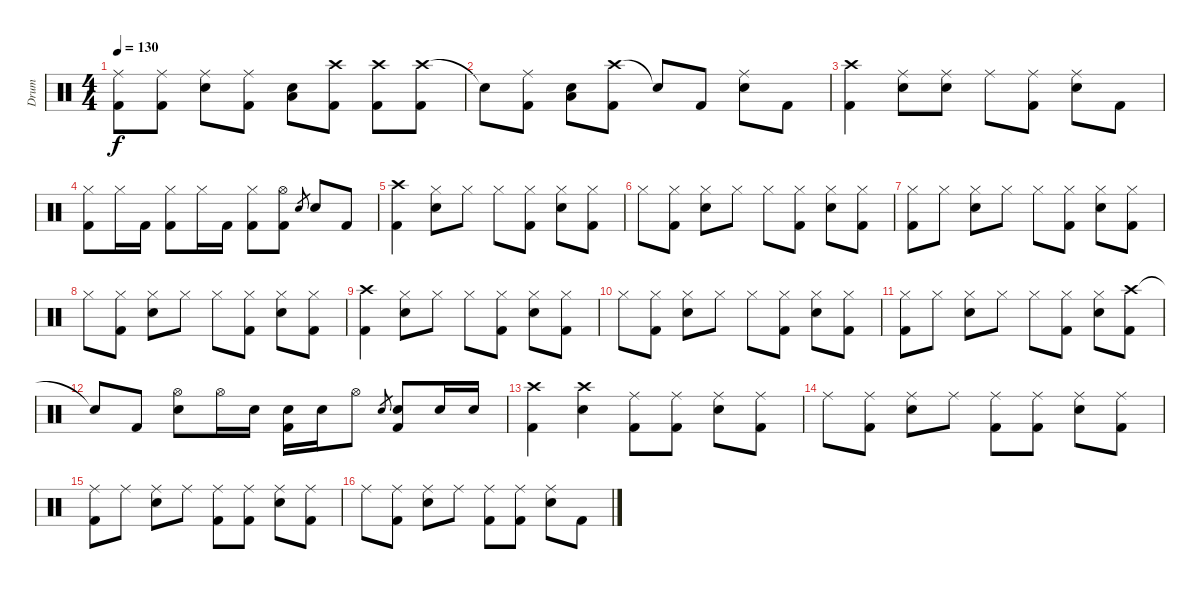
\track ("Drum" "Drum") {instrument percussion}
\staff {score}
\articulation defaults
\ts (4 4)
\tempo 130
\clef neutral
\ks c
("Ride (middle)" "Kick (hit) 2").8{dy f} ("Ride (middle)" "Kick (hit) 2").8 ("Ride (middle)" "Electric Snare (hit)").8 ("Ride (middle)" "Kick (hit) 2").8 ("Electric Snare (hit)" "Low Floor Tom (hit)").8 ("Crash high (hit)" "Kick (hit) 2").8 ("Crash high (hit)" "Kick (hit) 2").8 ("Crash high (hit)" "Kick (hit) 2").8 |
"Snare (hit)"{t}.8 ("Ride (middle)" "Kick (hit) 2").8 ("Electric Snare (hit)" "Low Floor Tom (hit)").8 ("Crash high (hit)" "Kick (hit) 2").8 "Snare (hit)"{t}.8 "Kick (hit) 2".8 ("Ride (middle)" "Electric Snare (hit)").8 "Kick (hit) 2".8 |
("Crash high (hit)" "Kick (hit) 2").4 ("Ride (middle)" "Electric Snare (hit)").8 ("Ride (middle)" "Electric Snare (hit)").8 "Ride (middle)".8 ("Ride (middle)" "Kick (hit) 2").8 ("Ride (middle)" "Electric Snare (hit)").8 "Kick (hit) 2".8 |
("Hi-Hat (closed)" "Kick (hit) 2").8 "Hi-Hat (closed)".16 "Kick (hit) 2".16 ("Hi-Hat (closed)" "Kick (hit) 2").8 "Hi-Hat (closed)".16 "Kick (hit) 2".16 ("Hi-Hat (closed)" "Kick (hit) 2").8 ("Hi-Hat (open)" "Kick (hit) 2").8 "Electric Snare (hit)".8{gr} "Electric Snare (hit)".8 "Kick (hit) 2".8 |
("Crash high (hit)" "Kick (hit) 2").4 ("Hi-Hat (closed)" "Electric Snare (hit)").8 "Hi-Hat (closed)".8 "Hi-Hat (closed)".8 ("Hi-Hat (closed)" "Kick (hit) 2").8 ("Hi-Hat (closed)" "Electric Snare (hit)").8 ("Hi-Hat (closed)" "Kick (hit) 2").8 |
"Hi-Hat (closed)".8 ("Hi-Hat (closed)" "Kick (hit) 2").8 ("Hi-Hat (closed)" "Electric Snare (hit)").8 "Hi-Hat (closed)".8 "Hi-Hat (closed)".8 ("Hi-Hat (closed)" "Kick (hit) 2").8 ("Hi-Hat (closed)" "Electric Snare (hit)").8 ("Hi-Hat (closed)" "Kick (hit) 2").8 |
("Hi-Hat (closed)" "Kick (hit) 2").8 "Hi-Hat (closed)".8 ("Hi-Hat (closed)" "Electric Snare (hit)").8 "Hi-Hat (closed)".8 "Hi-Hat (closed)".8 ("Hi-Hat (closed)" "Kick (hit) 2").8 ("Hi-Hat (closed)" "Electric Snare (hit)").8 ("Hi-Hat (closed)" "Kick (hit) 2").8 |
"Hi-Hat (closed)".8 ("Hi-Hat (closed)" "Kick (hit) 2").8 ("Hi-Hat (closed)" "Electric Snare (hit)").8 "Hi-Hat (closed)".8 "Hi-Hat (closed)".8 ("Hi-Hat (closed)" "Kick (hit) 2").8 ("Hi-Hat (closed)" "Electric Snare (hit)").8 ("Hi-Hat (closed)" "Kick (hit) 2").8 |
("Crash high (hit)" "Kick (hit) 2").4 ("Hi-Hat (closed)" "Electric Snare (hit)").8 "Hi-Hat (closed)".8 "Hi-Hat (closed)".8 ("Hi-Hat (closed)" "Kick (hit) 2").8 ("Hi-Hat (closed)" "Electric Snare (hit)").8 ("Hi-Hat (closed)" "Kick (hit) 2").8 |
"Hi-Hat (closed)".8 ("Hi-Hat (closed)" "Kick (hit) 2").8 ("Hi-Hat (closed)" "Electric Snare (hit)").8 "Hi-Hat (closed)".8 "Hi-Hat (closed)".8 ("Hi-Hat (closed)" "Kick (hit) 2").8 ("Hi-Hat (closed)" "Electric Snare (hit)").8 ("Hi-Hat (closed)" "Kick (hit) 2").8 |
("Hi-Hat (closed)" "Kick (hit) 2").8 "Hi-Hat (closed)".8 ("Hi-Hat (closed)" "Electric Snare (hit)").8 "Hi-Hat (closed)".8 "Hi-Hat (closed)".8 ("Hi-Hat (closed)" "Kick (hit) 2").8 ("Hi-Hat (closed)" "Electric Snare (hit)").8 ("Crash high (hit)" "Kick (hit) 2").8 |
"Snare (hit)"{t}.8 "Kick (hit) 2".8 ("Hi-Hat (open)" "Electric Snare (hit)").8 "Hi-Hat (open)".16 "Electric Snare (hit)".16 ("Electric Snare (hit)" "Kick (hit) 2").16 "Electric Snare (hit)".16 "Hi-Hat (open)".8 "Electric Snare (hit)".8{gr} ("Electric Snare (hit)" "Kick (hit) 2").8 "Electric Snare (hit)".16 "Electric Snare (hit)".16 |
("Crash high (hit)" "Kick (hit) 2").4 ("Crash high (hit)" "Electric Snare (hit)").4 ("Ride (middle)" "Kick (hit) 2").8 ("Ride (middle)" "Kick (hit) 2").8 ("Ride (middle)" "Electric Snare (hit)").8 ("Ride (middle)" "Kick (hit) 2").8 |
"Ride (middle)".8 ("Ride (middle)" "Kick (hit) 2").8 ("Ride (middle)" "Electric Snare (hit)").8 "Ride (middle)".8 ("Ride (middle)" "Kick (hit) 2").8 ("Ride (middle)" "Kick (hit) 2").8 ("Ride (middle)" "Electric Snare (hit)").8 ("Ride (middle)" "Kick (hit) 2").8 |
("Ride (middle)" "Kick (hit) 2").8 "Ride (middle)".8 ("Ride (middle)" "Electric Snare (hit)").8 "Ride (middle)".8 ("Ride (middle)" "Kick (hit) 2").8 ("Ride (middle)" "Kick (hit) 2").8 ("Ride (middle)" "Electric Snare (hit)").8 ("Ride (middle)" "Kick (hit) 2").8 |
"Ride (middle)".8 ("Ride (middle)" "Kick (hit) 2").8 ("Ride (middle)" "Electric Snare (hit)").8 "Ride (middle)".8 ("Ride (middle)" "Kick (hit) 2").8 ("Ride (middle)" "Kick (hit) 2").8 ("Ride (middle)" "Electric Snare (hit)").8 "Kick (hit) 2".8
